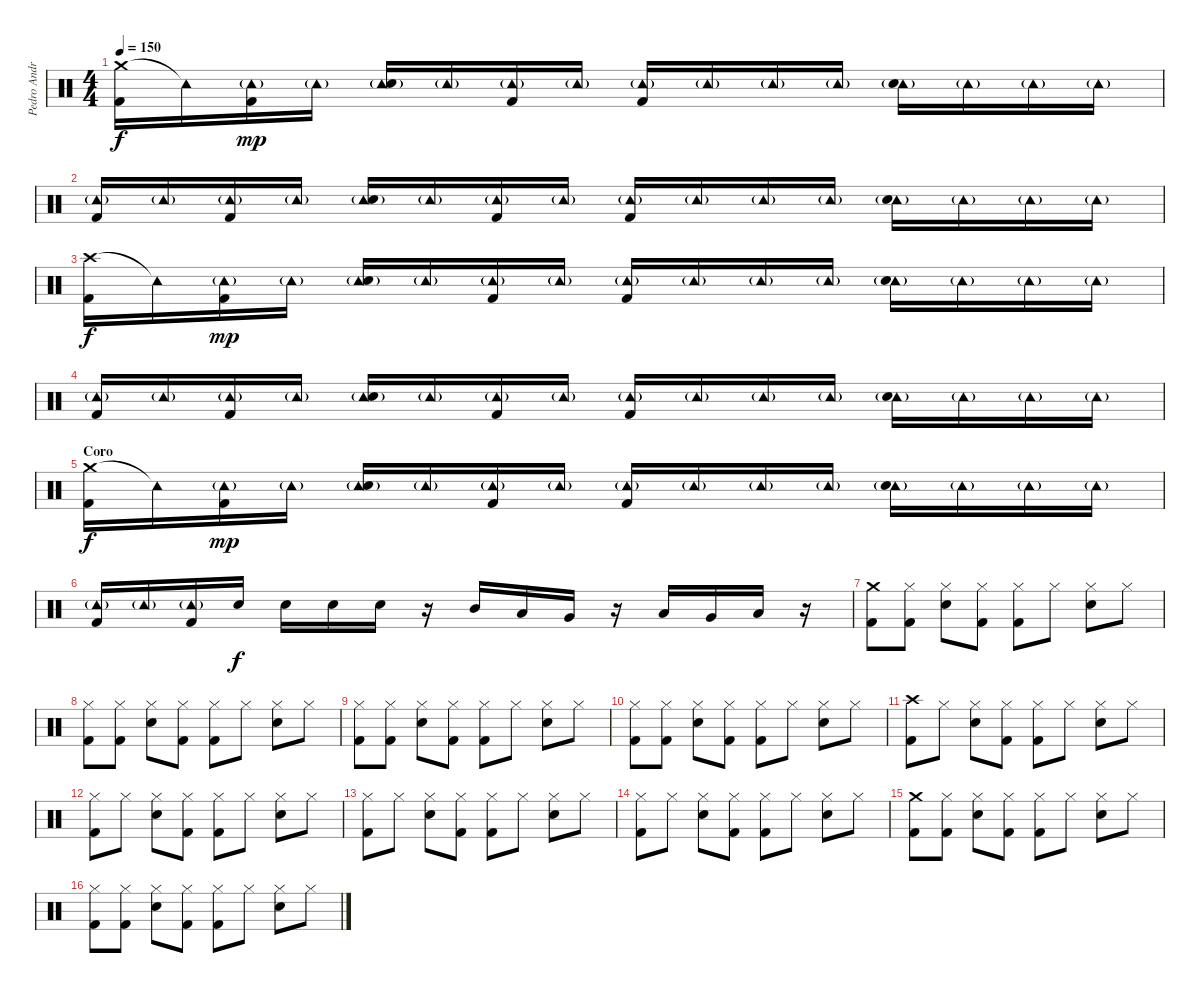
\track ("Pedro Andreu" "Pedro Andr") {instrument percussion}
\staff {score}
\articulation defaults
\ts (4 4)
\tempo 150
\clef neutral
\ks c
("Crash medium (hit)" "Kick (hit) 2").16{dy f} "Tambourine (hit)"{t}.16 ("Tambourine (hit)"{g} "Kick (hit) 2").16{dy mp} "Tambourine (hit)"{g}.16 ("Tambourine (hit)"{g} "Snare (hit) 2").16 "Tambourine (hit)"{g}.16 ("Tambourine (hit)"{g} "Kick (hit) 2").16 "Tambourine (hit)"{g}.16 ("Tambourine (hit)"{g} "Kick (hit) 2").16 "Tambourine (hit)"{g}.16 "Tambourine (hit)"{g}.16 "Tambourine (hit)"{g}.16 ("Tambourine (hit)"{g} "Snare (hit) 2").16 "Tambourine (hit)"{g}.16 "Tambourine (hit)"{g}.16 "Tambourine (hit)"{g}.16 |
("Tambourine (hit)"{g} "Kick (hit) 2").16 "Tambourine (hit)"{g}.16 ("Tambourine (hit)"{g} "Kick (hit) 2").16 "Tambourine (hit)"{g}.16 ("Tambourine (hit)"{g} "Snare (hit) 2").16 "Tambourine (hit)"{g}.16 ("Tambourine (hit)"{g} "Kick (hit) 2").16 "Tambourine (hit)"{g}.16 ("Tambourine (hit)"{g} "Kick (hit) 2").16 "Tambourine (hit)"{g}.16 "Tambourine (hit)"{g}.16 "Tambourine (hit)"{g}.16 ("Tambourine (hit)"{g} "Snare (hit) 2").16 "Tambourine (hit)"{g}.16 "Tambourine (hit)"{g}.16 "Tambourine (hit)"{g}.16 |
("Crash high (hit)" "Kick (hit) 2").16{dy f} "Tambourine (hit)"{t}.16 ("Tambourine (hit)"{g} "Kick (hit) 2").16{dy mp} "Tambourine (hit)"{g}.16 ("Tambourine (hit)"{g} "Snare (hit) 2").16 "Tambourine (hit)"{g}.16 ("Tambourine (hit)"{g} "Kick (hit) 2").16 "Tambourine (hit)"{g}.16 ("Tambourine (hit)"{g} "Kick (hit) 2").16 "Tambourine (hit)"{g}.16 "Tambourine (hit)"{g}.16 "Tambourine (hit)"{g}.16 ("Tambourine (hit)"{g} "Snare (hit) 2").16 "Tambourine (hit)"{g}.16 "Tambourine (hit)"{g}.16 "Tambourine (hit)"{g}.16 |
("Tambourine (hit)"{g} "Kick (hit) 2").16 "Tambourine (hit)"{g}.16 ("Tambourine (hit)"{g} "Kick (hit) 2").16 "Tambourine (hit)"{g}.16 ("Tambourine (hit)"{g} "Snare (hit) 2").16 "Tambourine (hit)"{g}.16 ("Tambourine (hit)"{g} "Kick (hit) 2").16 "Tambourine (hit)"{g}.16 ("Tambourine (hit)"{g} "Kick (hit) 2").16 "Tambourine (hit)"{g}.16 "Tambourine (hit)"{g}.16 "Tambourine (hit)"{g}.16 ("Tambourine (hit)"{g} "Snare (hit) 2").16 "Tambourine (hit)"{g}.16 "Tambourine (hit)"{g}.16 "Tambourine (hit)"{g}.16 |
\section ("" "Coro")
("Crash medium (hit)" "Kick (hit) 2").16{dy f} "Tambourine (hit)"{t}.16 ("Tambourine (hit)"{g} "Kick (hit) 2").16{dy mp} "Tambourine (hit)"{g}.16 ("Tambourine (hit)"{g} "Snare (hit) 2").16 "Tambourine (hit)"{g}.16 ("Tambourine (hit)"{g} "Kick (hit) 2").16 "Tambourine (hit)"{g}.16 ("Tambourine (hit)"{g} "Kick (hit) 2").16 "Tambourine (hit)"{g}.16 "Tambourine (hit)"{g}.16 "Tambourine (hit)"{g}.16 ("Tambourine (hit)"{g} "Snare (hit) 2").16 "Tambourine (hit)"{g}.16 "Tambourine (hit)"{g}.16 "Tambourine (hit)"{g}.16 |
("Tambourine (hit)"{g} "Kick (hit) 2").16 "Tambourine (hit)"{g}.16 ("Tambourine (hit)"{g} "Kick (hit) 2").16 "Snare (hit) 2".16{dy f} "Snare (hit) 2".16 "Snare (hit) 2".16 "Snare (hit) 2".16 r.16 "Mid Tom (hit)".16 "Low Tom (hit)".16 "Very Low Tom (hit)".16 r.16 "Low Tom (hit)".16 "Very Low Tom (hit)".16 "Low Floor Tom (hit)".16 r.16 |
("Crash medium (hit)" "Kick (hit) 2").8 ("Hi-Hat (closed)" "Kick (hit) 2").8 ("Hi-Hat (closed)" "Snare (hit) 2").8 ("Hi-Hat (closed)" "Kick (hit) 2").8 ("Hi-Hat (closed)" "Kick (hit) 2").8 "Hi-Hat (closed)".8 ("Hi-Hat (closed)" "Snare (hit) 2").8 "Hi-Hat (closed)".8 |
("Hi-Hat (closed)" "Kick (hit) 2").8 ("Hi-Hat (closed)" "Kick (hit) 2").8 ("Hi-Hat (closed)" "Snare (hit) 2").8 ("Hi-Hat (closed)" "Kick (hit) 2").8 ("Hi-Hat (closed)" "Kick (hit) 2").8 "Hi-Hat (closed)".8 ("Hi-Hat (closed)" "Snare (hit) 2").8 "Hi-Hat (closed)".8 |
("Hi-Hat (closed)" "Kick (hit) 2").8 ("Hi-Hat (closed)" "Kick (hit) 2").8 ("Hi-Hat (closed)" "Snare (hit) 2").8 ("Hi-Hat (closed)" "Kick (hit) 2").8 ("Hi-Hat (closed)" "Kick (hit) 2").8 "Hi-Hat (closed)".8 ("Hi-Hat (closed)" "Snare (hit) 2").8 "Hi-Hat (closed)".8 |
("Hi-Hat (closed)" "Kick (hit) 2").8 ("Hi-Hat (closed)" "Kick (hit) 2").8 ("Hi-Hat (closed)" "Snare (hit) 2").8 ("Hi-Hat (closed)" "Kick (hit) 2").8 ("Hi-Hat (closed)" "Kick (hit) 2").8 "Hi-Hat (closed)".8 ("Hi-Hat (closed)" "Snare (hit) 2").8 "Hi-Hat (closed)".8 |
("Crash high (hit)" "Kick (hit) 2").8 "Hi-Hat (closed)".8 ("Hi-Hat (closed)" "Snare (hit) 2").8 ("Hi-Hat (closed)" "Kick (hit) 2").8 ("Hi-Hat (closed)" "Kick (hit) 2").8 "Hi-Hat (closed)".8 ("Hi-Hat (closed)" "Snare (hit) 2").8 "Hi-Hat (closed)".8 |
("Hi-Hat (closed)" "Kick (hit) 2").8 "Hi-Hat (closed)".8 ("Hi-Hat (closed)" "Snare (hit) 2").8 ("Hi-Hat (closed)" "Kick (hit) 2").8 ("Hi-Hat (closed)" "Kick (hit) 2").8 "Hi-Hat (closed)".8 ("Hi-Hat (closed)" "Snare (hit) 2").8 "Hi-Hat (closed)".8 |
("Hi-Hat (closed)" "Kick (hit) 2").8 "Hi-Hat (closed)".8 ("Hi-Hat (closed)" "Snare (hit) 2").8 ("Hi-Hat (closed)" "Kick (hit) 2").8 ("Hi-Hat (closed)" "Kick (hit) 2").8 "Hi-Hat (closed)".8 ("Hi-Hat (closed)" "Snare (hit) 2").8 "Hi-Hat (closed)".8 |
("Hi-Hat (closed)" "Kick (hit) 2").8 "Hi-Hat (closed)".8 ("Hi-Hat (closed)" "Snare (hit) 2").8 ("Hi-Hat (closed)" "Kick (hit) 2").8 ("Hi-Hat (closed)" "Kick (hit) 2").8 "Hi-Hat (closed)".8 ("Hi-Hat (closed)" "Snare (hit) 2").8 "Hi-Hat (closed)".8 |
("Crash medium (hit)" "Kick (hit) 2").8 ("Hi-Hat (closed)" "Kick (hit) 2").8 ("Hi-Hat (closed)" "Snare (hit) 2").8 ("Hi-Hat (closed)" "Kick (hit) 2").8 ("Hi-Hat (closed)" "Kick (hit) 2").8 "Hi-Hat (closed)".8 ("Hi-Hat (closed)" "Snare (hit) 2").8 "Hi-Hat (closed)".8 |
("Hi-Hat (closed)" "Kick (hit) 2").8 ("Hi-Hat (closed)" "Kick (hit) 2").8 ("Hi-Hat (closed)" "Snare (hit) 2").8 ("Hi-Hat (closed)" "Kick (hit) 2").8 ("Hi-Hat (closed)" "Kick (hit) 2").8 "Hi-Hat (closed)".8 ("Hi-Hat (closed)" "Snare (hit) 2").8 "Hi-Hat (closed)".8
